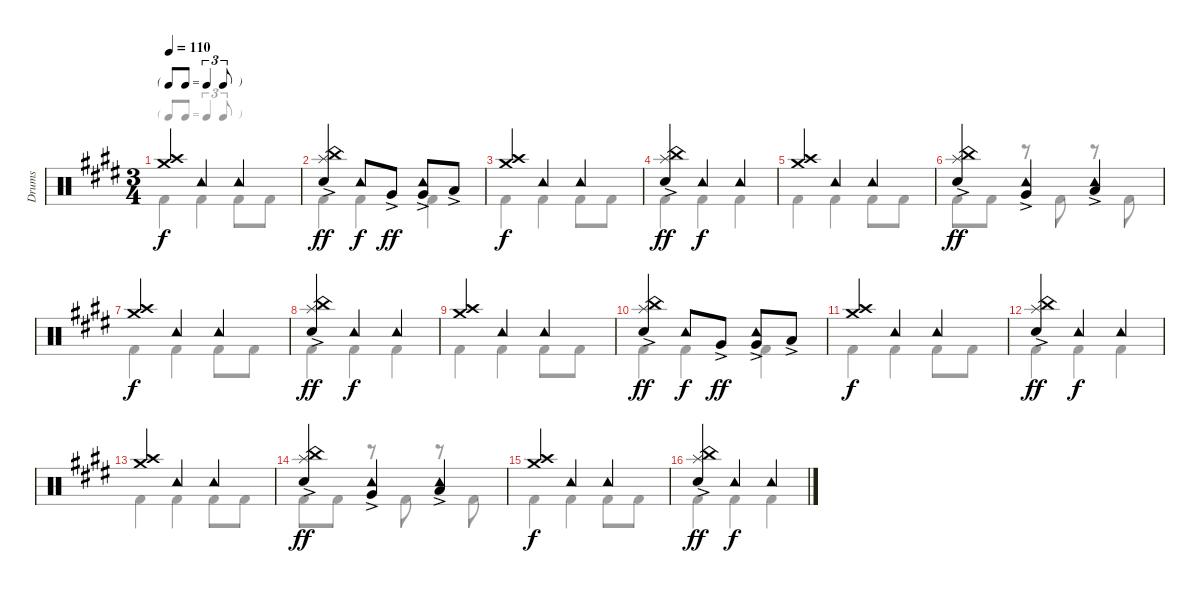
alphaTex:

\track ("Drums" "Drums") {instrument percussion}
\staff {score}
\articulation defaults
\voice
\ts (3 4)
\tf triplet8th
\tempo 110
\clef neutral
\ks e
("Crash medium (hit)" "Crash high (hit)").4{dy f} "Tambourine (hit)".4 "Tambourine (hit)".4 |
("Splash (hit)" "China (hit)" "Snare (hit) 2"{ac}).4{dy ff} "Tambourine (hit)".8{dy f} "Very Low Tom (hit)"{ac}.8{dy ff} ("Tambourine (hit)" "Very Low Tom (hit)"{ac}).8 "Low Floor Tom (hit)"{ac}.8 |
("Crash medium (hit)" "Crash high (hit)").4{dy f} "Tambourine (hit)".4 "Tambourine (hit)".4 |
("Splash (hit)" "China (hit)" "Snare (hit) 2"{ac}).4{dy ff} "Tambourine (hit)".4{dy f} "Tambourine (hit)".4 |
("Crash medium (hit)" "Crash high (hit)").4 "Tambourine (hit)".4 "Tambourine (hit)".4 |
("Splash (hit)" "China (hit)" "Snare (hit) 2"{ac}).4{dy ff} ("Tambourine (hit)" "Very Low Tom (hit)"{ac}).4 ("Tambourine (hit)" "Low Floor Tom (hit)"{ac}).4 |
("Crash medium (hit)" "Crash high (hit)").4{dy f} "Tambourine (hit)".4 "Tambourine (hit)".4 |
("Splash (hit)" "China (hit)" "Snare (hit) 2"{ac}).4{dy ff} "Tambourine (hit)".4{dy f} "Tambourine (hit)".4 |
("Crash medium (hit)" "Crash high (hit)").4 "Tambourine (hit)".4 "Tambourine (hit)".4 |
("Splash (hit)" "China (hit)" "Snare (hit) 2"{ac}).4{dy ff} "Tambourine (hit)".8{dy f} "Very Low Tom (hit)"{ac}.8{dy ff} ("Tambourine (hit)" "Very Low Tom (hit)"{ac}).8 "Low Floor Tom (hit)"{ac}.8 |
("Crash medium (hit)" "Crash high (hit)").4{dy f} "Tambourine (hit)".4 "Tambourine (hit)".4 |
("Splash (hit)" "China (hit)" "Snare (hit) 2"{ac}).4{dy ff} "Tambourine (hit)".4{dy f} "Tambourine (hit)".4 |
("Crash medium (hit)" "Crash high (hit)").4 "Tambourine (hit)".4 "Tambourine (hit)".4 |
("Splash (hit)" "China (hit)" "Snare (hit) 2"{ac}).4{dy ff} ("Tambourine (hit)" "Very Low Tom (hit)"{ac}).4 ("Tambourine (hit)" "Low Floor Tom (hit)"{ac}).4 |
("Crash medium (hit)" "Crash high (hit)").4{dy f} "Tambourine (hit)".4 "Tambourine (hit)".4 |
("Splash (hit)" "China (hit)" "Snare (hit) 2"{ac}).4{dy ff} "Tambourine (hit)".4{dy f} "Tambourine (hit)".4
\voice
\clef neutral
\ottava regular
\simile none
\ks e "Kick (hit) 2".4{dy f} "Kick (hit) 2".4 "Kick (hit) 2".8 "Kick (hit) 2".8
|
"Kick (hit) 2".4 "Kick (hit) 2".4 "Kick (hit) 2".4 |
"Kick (hit) 2".4 "Kick (hit) 2".4 "Kick (hit) 2".8 "Kick (hit) 2".8 |
"Kick (hit) 2".4 "Kick (hit) 2".4 "Kick (hit) 2".4 |
"Kick (hit) 2".4 "Kick (hit) 2".4 "Kick (hit) 2".8 "Kick (hit) 2".8 |
"Kick (hit) 2".8 "Kick (hit) 2".8 r.8 "Kick (hit) 2".8 r.8 "Kick (hit) 2".8 |
"Kick (hit) 2".4 "Kick (hit) 2".4 "Kick (hit) 2".8 "Kick (hit) 2".8 |
"Kick (hit) 2".4 "Kick (hit) 2".4 "Kick (hit) 2".4 |
"Kick (hit) 2".4 "Kick (hit) 2".4 "Kick (hit) 2".8 "Kick (hit) 2".8 |
"Kick (hit) 2".4 "Kick (hit) 2".4 "Kick (hit) 2".4 |
"Kick (hit) 2".4 "Kick (hit) 2".4 "Kick (hit) 2".8 "Kick (hit) 2".8 |
"Kick (hit) 2".4 "Kick (hit) 2".4 "Kick (hit) 2".4 |
"Kick (hit) 2".4 "Kick (hit) 2".4 "Kick (hit) 2".8 "Kick (hit) 2".8 |
"Kick (hit) 2".8 "Kick (hit) 2".8 r.8 "Kick (hit) 2".8 r.8 "Kick (hit) 2".8 |
"Kick (hit) 2".4 "Kick (hit) 2".4 "Kick (hit) 2".8 "Kick (hit) 2".8 |
"Kick (hit) 2".4 "Kick (hit) 2".4 "Kick (hit) 2".4
